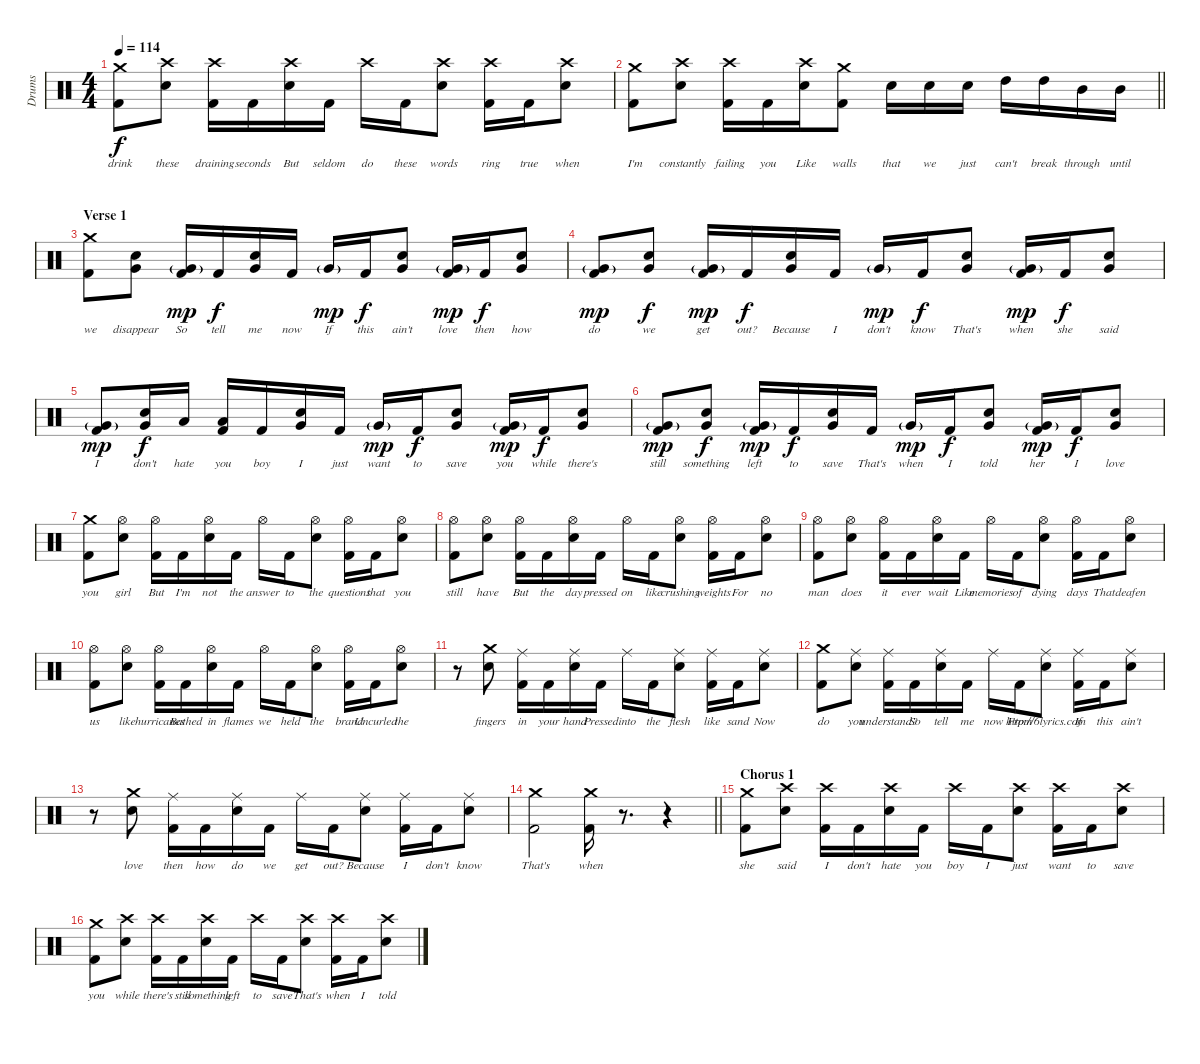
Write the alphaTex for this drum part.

\track ("Drums" "Drums") {instrument percussion}
\staff {score}
\articulation defaults
\ts (4 4)
\tempo 114
\clef neutral
\ks c
("Crash medium (hit)" "Kick (hit) 2").8{lyrics (0 "drink") lyrics (1 "") lyrics (2 "") lyrics (3 "") lyrics (4 "") dy f} ("Crash high (hit)" "Electric Snare (hit)").8{lyrics (0 "these") lyrics (1 "") lyrics (2 "") lyrics (3 "") lyrics (4 "")} ("Crash high (hit)" "Kick (hit) 2").16{lyrics (0 "draining") lyrics (1 "") lyrics (2 "") lyrics (3 "") lyrics (4 "")} "Kick (hit) 2".16{lyrics (0 "seconds") lyrics (1 "") lyrics (2 "") lyrics (3 "") lyrics (4 "")} ("Crash high (hit)" "Electric Snare (hit)").16{lyrics (0 "But") lyrics (1 "") lyrics (2 "") lyrics (3 "") lyrics (4 "")} "Kick (hit) 2".16{lyrics (0 "seldom") lyrics (1 "") lyrics (2 "") lyrics (3 "") lyrics (4 "")} "Crash high (hit)".16{lyrics (0 "do") lyrics (1 "") lyrics (2 "") lyrics (3 "") lyrics (4 "")} "Kick (hit) 2".16{lyrics (0 "these") lyrics (1 "") lyrics (2 "") lyrics (3 "") lyrics (4 "")} ("Crash high (hit)" "Electric Snare (hit)").8{lyrics (0 "words") lyrics (1 "") lyrics (2 "") lyrics (3 "") lyrics (4 "")} ("Crash high (hit)" "Kick (hit) 2").16{lyrics (0 "ring") lyrics (1 "") lyrics (2 "") lyrics (3 "") lyrics (4 "")} "Kick (hit) 2".16{lyrics (0 "true") lyrics (1 "") lyrics (2 "") lyrics (3 "") lyrics (4 "")} ("Crash high (hit)" "Electric Snare (hit)").8{lyrics (0 "when") lyrics (1 "") lyrics (2 "") lyrics (3 "") lyrics (4 "")} |
\barLineRight lightlight
("Crash medium (hit)" "Kick (hit) 2").8{lyrics (0 "I'm") lyrics (1 "") lyrics (2 "") lyrics (3 "") lyrics (4 "")} ("Crash high (hit)" "Electric Snare (hit)").8{lyrics (0 "constantly") lyrics (1 "") lyrics (2 "") lyrics (3 "") lyrics (4 "")} ("Crash high (hit)" "Kick (hit) 2").16{lyrics (0 "failing") lyrics (1 "") lyrics (2 "") lyrics (3 "") lyrics (4 "")} "Kick (hit) 2".16{lyrics (0 "you") lyrics (1 "") lyrics (2 "") lyrics (3 "") lyrics (4 "")} ("Crash high (hit)" "Electric Snare (hit)").16{lyrics (0 "Like") lyrics (1 "") lyrics (2 "") lyrics (3 "") lyrics (4 "")} ("Crash medium (hit)" "Kick (hit) 2").8{lyrics (0 "walls") lyrics (1 "") lyrics (2 "") lyrics (3 "") lyrics (4 "")} "Electric Snare (hit)".16{lyrics (0 "that") lyrics (1 "") lyrics (2 "") lyrics (3 "") lyrics (4 "")} "Electric Snare (hit)".16{lyrics (0 "we") lyrics (1 "") lyrics (2 "") lyrics (3 "") lyrics (4 "")} "Electric Snare (hit)".16{lyrics (0 "just") lyrics (1 "") lyrics (2 "") lyrics (3 "") lyrics (4 "")} "High Tom (hit)".16{lyrics (0 "can't") lyrics (1 "") lyrics (2 "") lyrics (3 "") lyrics (4 "")} "High Tom (hit)".16{lyrics (0 "break") lyrics (1 "") lyrics (2 "") lyrics (3 "") lyrics (4 "")} "Mid Tom (hit)".16{lyrics (0 "through") lyrics (1 "") lyrics (2 "") lyrics (3 "") lyrics (4 "")} "Mid Tom (hit)".16{lyrics (0 "until") lyrics (1 "") lyrics (2 "") lyrics (3 "") lyrics (4 "")} |
\section ("" "Verse 1")
("Crash medium (hit)" "Kick (hit) 2").8{lyrics (0 "we") lyrics (1 "") lyrics (2 "") lyrics (3 "") lyrics (4 "")} ("Very Low Tom (hit)" "Electric Snare (hit)").8{lyrics (0 "disappear") lyrics (1 "") lyrics (2 "") lyrics (3 "") lyrics (4 "")} ("Very Low Tom (hit)"{g} "Kick (hit) 2").16{lyrics (0 "So") lyrics (1 "") lyrics (2 "") lyrics (3 "") lyrics (4 "") dy mp} "Kick (hit) 2".16{lyrics (0 "tell") lyrics (1 "") lyrics (2 "") lyrics (3 "") lyrics (4 "") dy f} ("Very Low Tom (hit)" "Electric Snare (hit)").16{lyrics (0 "me") lyrics (1 "") lyrics (2 "") lyrics (3 "") lyrics (4 "")} "Kick (hit) 2".16{lyrics (0 "now") lyrics (1 "") lyrics (2 "") lyrics (3 "") lyrics (4 "")} "Very Low Tom (hit)"{g}.16{lyrics (0 "If") lyrics (1 "") lyrics (2 "") lyrics (3 "") lyrics (4 "") dy mp} "Kick (hit) 2".16{lyrics (0 "this") lyrics (1 "") lyrics (2 "") lyrics (3 "") lyrics (4 "") dy f} ("Very Low Tom (hit)" "Electric Snare (hit)").8{lyrics (0 "ain't") lyrics (1 "") lyrics (2 "") lyrics (3 "") lyrics (4 "")} ("Very Low Tom (hit)"{g} "Kick (hit) 2").16{lyrics (0 "love") lyrics (1 "") lyrics (2 "") lyrics (3 "") lyrics (4 "") dy mp} "Kick (hit) 2".16{lyrics (0 "then") lyrics (1 "") lyrics (2 "") lyrics (3 "") lyrics (4 "") dy f} ("Very Low Tom (hit)" "Electric Snare (hit)").8{lyrics (0 "how") lyrics (1 "") lyrics (2 "") lyrics (3 "") lyrics (4 "")} |
("Very Low Tom (hit)"{g} "Kick (hit) 2").8{lyrics (0 "do") lyrics (1 "") lyrics (2 "") lyrics (3 "") lyrics (4 "") dy mp} ("Very Low Tom (hit)" "Electric Snare (hit)").8{lyrics (0 "we") lyrics (1 "") lyrics (2 "") lyrics (3 "") lyrics (4 "") dy f} ("Very Low Tom (hit)"{g} "Kick (hit) 2").16{lyrics (0 "get") lyrics (1 "") lyrics (2 "") lyrics (3 "") lyrics (4 "") dy mp} "Kick (hit) 2".16{lyrics (0 "out?") lyrics (1 "") lyrics (2 "") lyrics (3 "") lyrics (4 "") dy f} ("Very Low Tom (hit)" "Electric Snare (hit)").16{lyrics (0 "Because") lyrics (1 "") lyrics (2 "") lyrics (3 "") lyrics (4 "")} "Kick (hit) 2".16{lyrics (0 "I") lyrics (1 "") lyrics (2 "") lyrics (3 "") lyrics (4 "")} "Very Low Tom (hit)"{g}.16{lyrics (0 "don't") lyrics (1 "") lyrics (2 "") lyrics (3 "") lyrics (4 "") dy mp} "Kick (hit) 2".16{lyrics (0 "know") lyrics (1 "") lyrics (2 "") lyrics (3 "") lyrics (4 "") dy f} ("Very Low Tom (hit)" "Electric Snare (hit)").8{lyrics (0 "That's") lyrics (1 "") lyrics (2 "") lyrics (3 "") lyrics (4 "")} ("Very Low Tom (hit)"{g} "Kick (hit) 2").16{lyrics (0 "when") lyrics (1 "") lyrics (2 "") lyrics (3 "") lyrics (4 "") dy mp} "Kick (hit) 2".16{lyrics (0 "she") lyrics (1 "") lyrics (2 "") lyrics (3 "") lyrics (4 "") dy f} ("Very Low Tom (hit)" "Electric Snare (hit)").8{lyrics (0 "said") lyrics (1 "") lyrics (2 "") lyrics (3 "") lyrics (4 "")} |
("Very Low Tom (hit)"{g} "Kick (hit) 2").8{lyrics (0 "I") lyrics (1 "") lyrics (2 "") lyrics (3 "") lyrics (4 "") dy mp} ("Very Low Tom (hit)" "Electric Snare (hit)").16{lyrics (0 "don't") lyrics (1 "") lyrics (2 "") lyrics (3 "") lyrics (4 "") dy f} "Low Tom (hit)".16{lyrics (0 "hate") lyrics (1 "") lyrics (2 "") lyrics (3 "") lyrics (4 "")} ("Low Tom (hit)" "Kick (hit) 2").16{lyrics (0 "you") lyrics (1 "") lyrics (2 "") lyrics (3 "") lyrics (4 "")} "Kick (hit) 2".16{lyrics (0 "boy") lyrics (1 "") lyrics (2 "") lyrics (3 "") lyrics (4 "")} ("Very Low Tom (hit)" "Electric Snare (hit)").16{lyrics (0 "I") lyrics (1 "") lyrics (2 "") lyrics (3 "") lyrics (4 "")} "Kick (hit) 2".16{lyrics (0 "just") lyrics (1 "") lyrics (2 "") lyrics (3 "") lyrics (4 "")} "Very Low Tom (hit)"{g}.16{lyrics (0 "want") lyrics (1 "") lyrics (2 "") lyrics (3 "") lyrics (4 "") dy mp} "Kick (hit) 2".16{lyrics (0 "to") lyrics (1 "") lyrics (2 "") lyrics (3 "") lyrics (4 "") dy f} ("Very Low Tom (hit)" "Electric Snare (hit)").8{lyrics (0 "save") lyrics (1 "") lyrics (2 "") lyrics (3 "") lyrics (4 "")} ("Very Low Tom (hit)"{g} "Kick (hit) 2").16{lyrics (0 "you") lyrics (1 "") lyrics (2 "") lyrics (3 "") lyrics (4 "") dy mp} "Kick (hit) 2".16{lyrics (0 "while") lyrics (1 "") lyrics (2 "") lyrics (3 "") lyrics (4 "") dy f} ("Very Low Tom (hit)" "Electric Snare (hit)").8{lyrics (0 "there's") lyrics (1 "") lyrics (2 "") lyrics (3 "") lyrics (4 "")} |
("Very Low Tom (hit)"{g} "Kick (hit) 2").8{lyrics (0 "still") lyrics (1 "") lyrics (2 "") lyrics (3 "") lyrics (4 "") dy mp} ("Very Low Tom (hit)" "Electric Snare (hit)").8{lyrics (0 "something") lyrics (1 "") lyrics (2 "") lyrics (3 "") lyrics (4 "") dy f} ("Very Low Tom (hit)"{g} "Kick (hit) 2").16{lyrics (0 "left") lyrics (1 "") lyrics (2 "") lyrics (3 "") lyrics (4 "") dy mp} "Kick (hit) 2".16{lyrics (0 "to") lyrics (1 "") lyrics (2 "") lyrics (3 "") lyrics (4 "") dy f} ("Very Low Tom (hit)" "Electric Snare (hit)").16{lyrics (0 "save") lyrics (1 "") lyrics (2 "") lyrics (3 "") lyrics (4 "")} "Kick (hit) 2".16{lyrics (0 "That's") lyrics (1 "") lyrics (2 "") lyrics (3 "") lyrics (4 "")} "Very Low Tom (hit)"{g}.16{lyrics (0 "when") lyrics (1 "") lyrics (2 "") lyrics (3 "") lyrics (4 "") dy mp} "Kick (hit) 2".16{lyrics (0 "I") lyrics (1 "") lyrics (2 "") lyrics (3 "") lyrics (4 "") dy f} ("Very Low Tom (hit)" "Electric Snare (hit)").8{lyrics (0 "told") lyrics (1 "") lyrics (2 "") lyrics (3 "") lyrics (4 "")} ("Very Low Tom (hit)"{g} "Kick (hit) 2").16{lyrics (0 "her") lyrics (1 "") lyrics (2 "") lyrics (3 "") lyrics (4 "") dy mp} "Kick (hit) 2".16{lyrics (0 "I") lyrics (1 "") lyrics (2 "") lyrics (3 "") lyrics (4 "") dy f} ("Very Low Tom (hit)" "Electric Snare (hit)").8{lyrics (0 "love") lyrics (1 "") lyrics (2 "") lyrics (3 "") lyrics (4 "")} |
("Crash medium (hit)" "Kick (hit) 2").8{lyrics (0 "you") lyrics (1 "") lyrics (2 "") lyrics (3 "") lyrics (4 "")} ("Hi-Hat (open)" "Electric Snare (hit)").8{lyrics (0 "girl") lyrics (1 "") lyrics (2 "") lyrics (3 "") lyrics (4 "")} ("Hi-Hat (open)" "Kick (hit) 2").16{lyrics (0 "But") lyrics (1 "") lyrics (2 "") lyrics (3 "") lyrics (4 "")} "Kick (hit) 2".16{lyrics (0 "I'm") lyrics (1 "") lyrics (2 "") lyrics (3 "") lyrics (4 "")} ("Hi-Hat (open)" "Electric Snare (hit)").16{lyrics (0 "not") lyrics (1 "") lyrics (2 "") lyrics (3 "") lyrics (4 "")} "Kick (hit) 2".16{lyrics (0 "the") lyrics (1 "") lyrics (2 "") lyrics (3 "") lyrics (4 "")} "Hi-Hat (open)".16{lyrics (0 "answer") lyrics (1 "") lyrics (2 "") lyrics (3 "") lyrics (4 "")} "Kick (hit) 2".16{lyrics (0 "to") lyrics (1 "") lyrics (2 "") lyrics (3 "") lyrics (4 "")} ("Hi-Hat (open)" "Electric Snare (hit)").8{lyrics (0 "the") lyrics (1 "") lyrics (2 "") lyrics (3 "") lyrics (4 "")} ("Hi-Hat (open)" "Kick (hit) 2").16{lyrics (0 "questions") lyrics (1 "") lyrics (2 "") lyrics (3 "") lyrics (4 "")} "Kick (hit) 2".16{lyrics (0 "that") lyrics (1 "") lyrics (2 "") lyrics (3 "") lyrics (4 "")} ("Hi-Hat (open)" "Electric Snare (hit)").8{lyrics (0 "you") lyrics (1 "") lyrics (2 "") lyrics (3 "") lyrics (4 "")} |
("Hi-Hat (open)" "Kick (hit) 2").8{lyrics (0 "still") lyrics (1 "") lyrics (2 "") lyrics (3 "") lyrics (4 "")} ("Hi-Hat (open)" "Electric Snare (hit)").8{lyrics (0 "have") lyrics (1 "") lyrics (2 "") lyrics (3 "") lyrics (4 "")} ("Hi-Hat (open)" "Kick (hit) 2").16{lyrics (0 "But") lyrics (1 "") lyrics (2 "") lyrics (3 "") lyrics (4 "")} "Kick (hit) 2".16{lyrics (0 "the") lyrics (1 "") lyrics (2 "") lyrics (3 "") lyrics (4 "")} ("Hi-Hat (open)" "Electric Snare (hit)").16{lyrics (0 "day") lyrics (1 "") lyrics (2 "") lyrics (3 "") lyrics (4 "")} "Kick (hit) 2".16{lyrics (0 "pressed") lyrics (1 "") lyrics (2 "") lyrics (3 "") lyrics (4 "")} "Hi-Hat (open)".16{lyrics (0 "on") lyrics (1 "") lyrics (2 "") lyrics (3 "") lyrics (4 "")} "Kick (hit) 2".16{lyrics (0 "like") lyrics (1 "") lyrics (2 "") lyrics (3 "") lyrics (4 "")} ("Hi-Hat (open)" "Electric Snare (hit)").8{lyrics (0 "crushing") lyrics (1 "") lyrics (2 "") lyrics (3 "") lyrics (4 "")} ("Hi-Hat (open)" "Kick (hit) 2").16{lyrics (0 "weights") lyrics (1 "") lyrics (2 "") lyrics (3 "") lyrics (4 "")} "Kick (hit) 2".16{lyrics (0 "For") lyrics (1 "") lyrics (2 "") lyrics (3 "") lyrics (4 "")} ("Hi-Hat (open)" "Electric Snare (hit)").8{lyrics (0 "no") lyrics (1 "") lyrics (2 "") lyrics (3 "") lyrics (4 "")} |
("Hi-Hat (open)" "Kick (hit) 2").8{lyrics (0 "man") lyrics (1 "") lyrics (2 "") lyrics (3 "") lyrics (4 "")} ("Hi-Hat (open)" "Electric Snare (hit)").8{lyrics (0 "does") lyrics (1 "") lyrics (2 "") lyrics (3 "") lyrics (4 "")} ("Hi-Hat (open)" "Kick (hit) 2").16{lyrics (0 "it") lyrics (1 "") lyrics (2 "") lyrics (3 "") lyrics (4 "")} "Kick (hit) 2".16{lyrics (0 "ever") lyrics (1 "") lyrics (2 "") lyrics (3 "") lyrics (4 "")} ("Hi-Hat (open)" "Electric Snare (hit)").16{lyrics (0 "wait") lyrics (1 "") lyrics (2 "") lyrics (3 "") lyrics (4 "")} "Kick (hit) 2".16{lyrics (0 "Like") lyrics (1 "") lyrics (2 "") lyrics (3 "") lyrics (4 "")} "Hi-Hat (open)".16{lyrics (0 "memories") lyrics (1 "") lyrics (2 "") lyrics (3 "") lyrics (4 "")} "Kick (hit) 2".16{lyrics (0 "of") lyrics (1 "") lyrics (2 "") lyrics (3 "") lyrics (4 "")} ("Hi-Hat (open)" "Electric Snare (hit)").8{lyrics (0 "dying") lyrics (1 "") lyrics (2 "") lyrics (3 "") lyrics (4 "")} ("Hi-Hat (open)" "Kick (hit) 2").16{lyrics (0 "days") lyrics (1 "") lyrics (2 "") lyrics (3 "") lyrics (4 "")} "Kick (hit) 2".16{lyrics (0 "That") lyrics (1 "") lyrics (2 "") lyrics (3 "") lyrics (4 "")} ("Hi-Hat (open)" "Electric Snare (hit)").8{lyrics (0 "deafen") lyrics (1 "") lyrics (2 "") lyrics (3 "") lyrics (4 "")} |
("Hi-Hat (open)" "Kick (hit) 2").8{lyrics (0 "us") lyrics (1 "") lyrics (2 "") lyrics (3 "") lyrics (4 "")} ("Hi-Hat (open)" "Electric Snare (hit)").8{lyrics (0 "like") lyrics (1 "") lyrics (2 "") lyrics (3 "") lyrics (4 "")} ("Hi-Hat (open)" "Kick (hit) 2").16{lyrics (0 "hurricanes") lyrics (1 "") lyrics (2 "") lyrics (3 "") lyrics (4 "")} "Kick (hit) 2".16{lyrics (0 "Bathed") lyrics (1 "") lyrics (2 "") lyrics (3 "") lyrics (4 "")} ("Hi-Hat (open)" "Electric Snare (hit)").16{lyrics (0 "in") lyrics (1 "") lyrics (2 "") lyrics (3 "") lyrics (4 "")} "Kick (hit) 2".16{lyrics (0 "flames") lyrics (1 "") lyrics (2 "") lyrics (3 "") lyrics (4 "")} "Hi-Hat (open)".16{lyrics (0 "we") lyrics (1 "") lyrics (2 "") lyrics (3 "") lyrics (4 "")} "Kick (hit) 2".16{lyrics (0 "held") lyrics (1 "") lyrics (2 "") lyrics (3 "") lyrics (4 "")} ("Hi-Hat (open)" "Electric Snare (hit)").8{lyrics (0 "the") lyrics (1 "") lyrics (2 "") lyrics (3 "") lyrics (4 "")} ("Hi-Hat (open)" "Kick (hit) 2").16{lyrics (0 "brand") lyrics (1 "") lyrics (2 "") lyrics (3 "") lyrics (4 "")} "Kick (hit) 2".16{lyrics (0 "Uncurled") lyrics (1 "") lyrics (2 "") lyrics (3 "") lyrics (4 "")} ("Hi-Hat (open)" "Electric Snare (hit)").8{lyrics (0 "the") lyrics (1 "") lyrics (2 "") lyrics (3 "") lyrics (4 "")} |
r.8 ("Crash medium (hit)" "Electric Snare (hit)").8{lyrics (0 "fingers") lyrics (1 "") lyrics (2 "") lyrics (3 "") lyrics (4 "")} ("Ride (middle)" "Kick (hit) 2").16{lyrics (0 "in") lyrics (1 "") lyrics (2 "") lyrics (3 "") lyrics (4 "")} "Kick (hit) 2".16{lyrics (0 "your") lyrics (1 "") lyrics (2 "") lyrics (3 "") lyrics (4 "")} ("Ride (middle)" "Electric Snare (hit)").16{lyrics (0 "hand") lyrics (1 "") lyrics (2 "") lyrics (3 "") lyrics (4 "")} "Kick (hit) 2".16{lyrics (0 "Pressed") lyrics (1 "") lyrics (2 "") lyrics (3 "") lyrics (4 "")} "Ride (middle)".16{lyrics (0 "into") lyrics (1 "") lyrics (2 "") lyrics (3 "") lyrics (4 "")} "Kick (hit) 2".16{lyrics (0 "the") lyrics (1 "") lyrics (2 "") lyrics (3 "") lyrics (4 "")} ("Ride (middle)" "Electric Snare (hit)").8{lyrics (0 "flesh") lyrics (1 "") lyrics (2 "") lyrics (3 "") lyrics (4 "")} ("Ride (middle)" "Kick (hit) 2").16{lyrics (0 "like") lyrics (1 "") lyrics (2 "") lyrics (3 "") lyrics (4 "")} "Kick (hit) 2".16{lyrics (0 "sand") lyrics (1 "") lyrics (2 "") lyrics (3 "") lyrics (4 "")} ("Ride (middle)" "Electric Snare (hit)").8{lyrics (0 "Now") lyrics (1 "") lyrics (2 "") lyrics (3 "") lyrics (4 "")} |
("Crash medium (hit)" "Kick (hit) 2").8{lyrics (0 "do") lyrics (1 "") lyrics (2 "") lyrics (3 "") lyrics (4 "")} ("Ride (middle)" "Electric Snare (hit)").8{lyrics (0 "you") lyrics (1 "") lyrics (2 "") lyrics (3 "") lyrics (4 "")} ("Ride (middle)" "Kick (hit) 2").16{lyrics (0 "understand?") lyrics (1 "") lyrics (2 "") lyrics (3 "") lyrics (4 "")} "Kick (hit) 2".16{lyrics (0 "So") lyrics (1 "") lyrics (2 "") lyrics (3 "") lyrics (4 "")} ("Ride (middle)" "Electric Snare (hit)").16{lyrics (0 "tell") lyrics (1 "") lyrics (2 "") lyrics (3 "") lyrics (4 "")} "Kick (hit) 2".16{lyrics (0 "me") lyrics (1 "") lyrics (2 "") lyrics (3 "") lyrics (4 "")} "Ride (middle)".16{lyrics (0 "now") lyrics (1 "") lyrics (2 "") lyrics (3 "") lyrics (4 "")} "Kick (hit) 2".16{lyrics (0 "From") lyrics (1 "") lyrics (2 "") lyrics (3 "") lyrics (4 "")} ("Ride (middle)" "Electric Snare (hit)").8{lyrics (0 "http://6lyrics.com") lyrics (1 "") lyrics (2 "") lyrics (3 "") lyrics (4 "")} ("Ride (middle)" "Kick (hit) 2").16{lyrics (0 "If") lyrics (1 "") lyrics (2 "") lyrics (3 "") lyrics (4 "")} "Kick (hit) 2".16{lyrics (0 "this") lyrics (1 "") lyrics (2 "") lyrics (3 "") lyrics (4 "")} ("Ride (middle)" "Electric Snare (hit)").8{lyrics (0 "ain't") lyrics (1 "") lyrics (2 "") lyrics (3 "") lyrics (4 "")} |
r.8 ("Crash medium (hit)" "Electric Snare (hit)").8{lyrics (0 "love") lyrics (1 "") lyrics (2 "") lyrics (3 "") lyrics (4 "")} ("Ride (middle)" "Kick (hit) 2").16{lyrics (0 "then") lyrics (1 "") lyrics (2 "") lyrics (3 "") lyrics (4 "")} "Kick (hit) 2".16{lyrics (0 "how") lyrics (1 "") lyrics (2 "") lyrics (3 "") lyrics (4 "")} ("Ride (middle)" "Electric Snare (hit)").16{lyrics (0 "do") lyrics (1 "") lyrics (2 "") lyrics (3 "") lyrics (4 "")} "Kick (hit) 2".16{lyrics (0 "we") lyrics (1 "") lyrics (2 "") lyrics (3 "") lyrics (4 "")} "Ride (middle)".16{lyrics (0 "get") lyrics (1 "") lyrics (2 "") lyrics (3 "") lyrics (4 "")} "Kick (hit) 2".16{lyrics (0 "out?") lyrics (1 "") lyrics (2 "") lyrics (3 "") lyrics (4 "")} ("Ride (middle)" "Electric Snare (hit)").8{lyrics (0 "Because") lyrics (1 "") lyrics (2 "") lyrics (3 "") lyrics (4 "")} ("Ride (middle)" "Kick (hit) 2").16{lyrics (0 "I") lyrics (1 "") lyrics (2 "") lyrics (3 "") lyrics (4 "")} "Kick (hit) 2".16{lyrics (0 "don't") lyrics (1 "") lyrics (2 "") lyrics (3 "") lyrics (4 "")} ("Ride (middle)" "Electric Snare (hit)").8{lyrics (0 "know") lyrics (1 "") lyrics (2 "") lyrics (3 "") lyrics (4 "")} |
\barLineRight lightlight
("Crash medium (hit)" "Kick (hit) 2").2{lyrics (0 "That's") lyrics (1 "") lyrics (2 "") lyrics (3 "") lyrics (4 "")} ("Crash medium (hit)" "Kick (hit) 2").16{lyrics (0 "when") lyrics (1 "") lyrics (2 "") lyrics (3 "") lyrics (4 "")} r.8{d} r.4 |
\section ("" "Chorus 1")
("Crash medium (hit)" "Kick (hit) 2").8{lyrics (0 "she") lyrics (1 "") lyrics (2 "") lyrics (3 "") lyrics (4 "")} ("Crash high (hit)" "Electric Snare (hit)").8{lyrics (0 "said") lyrics (1 "") lyrics (2 "") lyrics (3 "") lyrics (4 "")} ("Crash high (hit)" "Kick (hit) 2").16{lyrics (0 "I") lyrics (1 "") lyrics (2 "") lyrics (3 "") lyrics (4 "")} "Kick (hit) 2".16{lyrics (0 "don't") lyrics (1 "") lyrics (2 "") lyrics (3 "") lyrics (4 "")} ("Crash high (hit)" "Electric Snare (hit)").16{lyrics (0 "hate") lyrics (1 "") lyrics (2 "") lyrics (3 "") lyrics (4 "")} "Kick (hit) 2".16{lyrics (0 "you") lyrics (1 "") lyrics (2 "") lyrics (3 "") lyrics (4 "")} "Crash high (hit)".16{lyrics (0 "boy") lyrics (1 "") lyrics (2 "") lyrics (3 "") lyrics (4 "")} "Kick (hit) 2".16{lyrics (0 "I") lyrics (1 "") lyrics (2 "") lyrics (3 "") lyrics (4 "")} ("Crash high (hit)" "Electric Snare (hit)").8{lyrics (0 "just") lyrics (1 "") lyrics (2 "") lyrics (3 "") lyrics (4 "")} ("Crash high (hit)" "Kick (hit) 2").16{lyrics (0 "want") lyrics (1 "") lyrics (2 "") lyrics (3 "") lyrics (4 "")} "Kick (hit) 2".16{lyrics (0 "to") lyrics (1 "") lyrics (2 "") lyrics (3 "") lyrics (4 "")} ("Crash high (hit)" "Electric Snare (hit)").8{lyrics (0 "save") lyrics (1 "") lyrics (2 "") lyrics (3 "") lyrics (4 "")} |
("Crash medium (hit)" "Kick (hit) 2").8{lyrics (0 "you") lyrics (1 "") lyrics (2 "") lyrics (3 "") lyrics (4 "")} ("Crash high (hit)" "Electric Snare (hit)").8{lyrics (0 "while") lyrics (1 "") lyrics (2 "") lyrics (3 "") lyrics (4 "")} ("Crash high (hit)" "Kick (hit) 2").16{lyrics (0 "there's") lyrics (1 "") lyrics (2 "") lyrics (3 "") lyrics (4 "")} "Kick (hit) 2".16{lyrics (0 "still") lyrics (1 "") lyrics (2 "") lyrics (3 "") lyrics (4 "")} ("Crash high (hit)" "Electric Snare (hit)").16{lyrics (0 "something") lyrics (1 "") lyrics (2 "") lyrics (3 "") lyrics (4 "")} "Kick (hit) 2".16{lyrics (0 "left") lyrics (1 "") lyrics (2 "") lyrics (3 "") lyrics (4 "")} "Crash high (hit)".16{lyrics (0 "to") lyrics (1 "") lyrics (2 "") lyrics (3 "") lyrics (4 "")} "Kick (hit) 2".16{lyrics (0 "save") lyrics (1 "") lyrics (2 "") lyrics (3 "") lyrics (4 "")} ("Crash high (hit)" "Electric Snare (hit)").8{lyrics (0 "That's") lyrics (1 "") lyrics (2 "") lyrics (3 "") lyrics (4 "")} ("Crash high (hit)" "Kick (hit) 2").16{lyrics (0 "when") lyrics (1 "") lyrics (2 "") lyrics (3 "") lyrics (4 "")} "Kick (hit) 2".16{lyrics (0 "I") lyrics (1 "") lyrics (2 "") lyrics (3 "") lyrics (4 "")} ("Crash high (hit)" "Electric Snare (hit)").8{lyrics (0 "told") lyrics (1 "") lyrics (2 "") lyrics (3 "") lyrics (4 "")}
